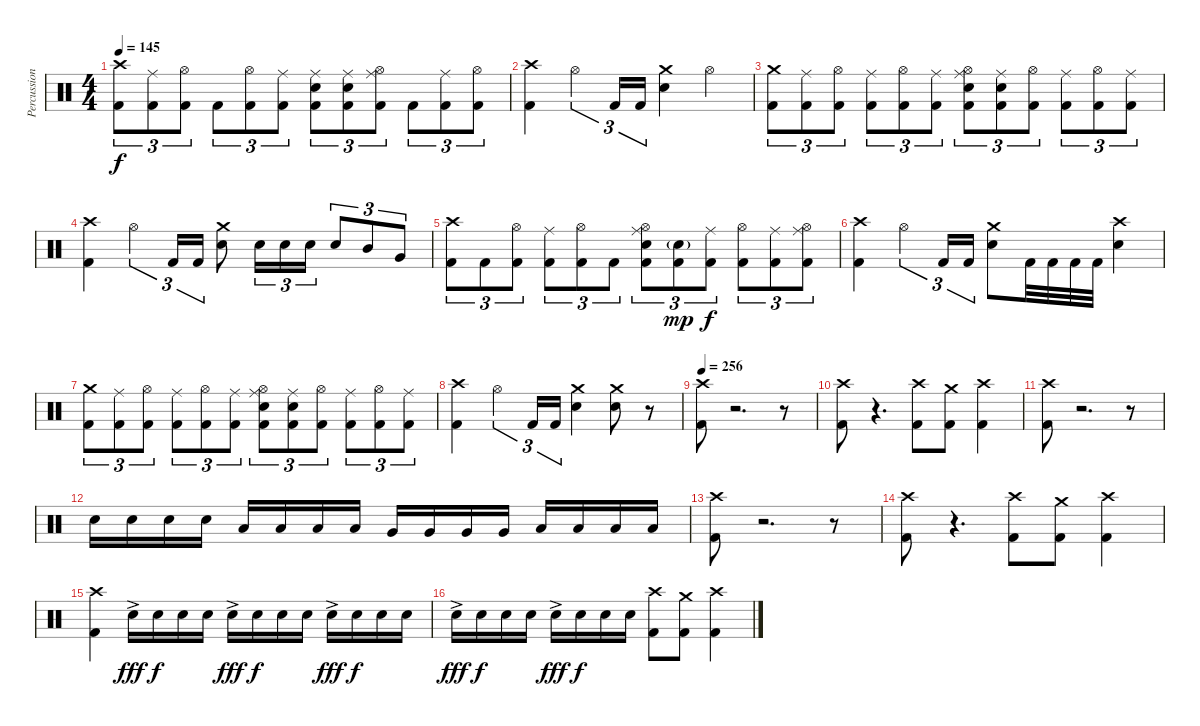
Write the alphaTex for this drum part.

\track ("Percussion" "Percussion") {instrument percussion}
\staff {score}
\articulation defaults
\ts (4 4)
\tempo 145
\clef neutral
\ks c
("Crash high (hit)" "Kick (hit) 2").8{tu (3 2) dy f} ("Ride (middle)" "Kick (hit) 2").8{tu (3 2)} ("Hi-Hat (open)" "Kick (hit) 2").8{tu (3 2)} "Kick (hit) 2".8{tu (3 2)} ("Hi-Hat (open)" "Kick (hit) 2").8{tu (3 2)} ("Ride (middle)" "Kick (hit) 2").8{tu (3 2)} ("Ride (middle)" "Snare (hit) 2" "Kick (hit) 2").8{tu (3 2)} ("Ride (middle)" "Snare (hit) 2" "Kick (hit) 2").8{tu (3 2)} ("Ride (middle)" "Hi-Hat (open)" "Kick (hit) 2").8{tu (3 2)} "Kick (hit) 2".8{tu (3 2)} ("Ride (middle)" "Kick (hit) 2").8{tu (3 2)} ("Hi-Hat (open)" "Kick (hit) 2").8{tu (3 2)} |
("Crash high (hit)" "Kick (hit) 2").4 "Hi-Hat (open)".4{tu (3 2)} "Kick (hit) 2".16{tu (3 2)} "Kick (hit) 2".16{tu (3 2)} ("Crash medium (hit)" "Snare (hit) 2").4 "Hi-Hat (open)".4 |
("Crash medium (hit)" "Kick (hit) 2").8{tu (3 2)} ("Ride (middle)" "Kick (hit) 2").8{tu (3 2)} ("Hi-Hat (open)" "Kick (hit) 2").8{tu (3 2)} ("Ride (middle)" "Kick (hit) 2").8{tu (3 2)} ("Hi-Hat (open)" "Kick (hit) 2").8{tu (3 2)} ("Ride (middle)" "Kick (hit) 2").8{tu (3 2)} ("Ride (middle)" "Snare (hit) 2" "Hi-Hat (open)" "Kick (hit) 2").8{tu (3 2)} ("Ride (middle)" "Snare (hit) 2" "Kick (hit) 2").8{tu (3 2)} ("Hi-Hat (open)" "Kick (hit) 2").8{tu (3 2)} ("Ride (middle)" "Kick (hit) 2").8{tu (3 2)} ("Hi-Hat (open)" "Kick (hit) 2").8{tu (3 2)} ("Ride (middle)" "Kick (hit) 2").8{tu (3 2)} |
("Crash high (hit)" "Kick (hit) 2").4 "Hi-Hat (open)".4{tu (3 2)} "Kick (hit) 2".16{tu (3 2)} "Kick (hit) 2".16{tu (3 2)} ("Crash medium (hit)" "Snare (hit) 2").8 "Snare (hit) 2".16{tu (3 2)} "Snare (hit) 2".16{tu (3 2)} "Snare (hit) 2".16{tu (3 2)} "Snare (hit) 2".8{tu (3 2)} "Mid Tom (hit)".8{tu (3 2)} "Very Low Tom (hit)".8{tu (3 2)} |
("Crash high (hit)" "Kick (hit) 2").8{tu (3 2)} "Kick (hit) 2".8{tu (3 2)} ("Hi-Hat (open)" "Kick (hit) 2").8{tu (3 2)} ("Ride (middle)" "Kick (hit) 2").8{tu (3 2)} ("Hi-Hat (open)" "Kick (hit) 2").8{tu (3 2)} "Kick (hit) 2".8{tu (3 2)} ("Ride (middle)" "Snare (hit) 2" "Hi-Hat (open)" "Kick (hit) 2").8{tu (3 2)} ("Snare (hit) 2"{g} "Kick (hit) 2").8{tu (3 2) dy mp} ("Ride (middle)" "Kick (hit) 2").8{tu (3 2) dy f} ("Hi-Hat (open)" "Kick (hit) 2").8{tu (3 2)} ("Ride (middle)" "Kick (hit) 2").8{tu (3 2)} ("Ride (middle)" "Hi-Hat (open)" "Kick (hit) 2").8{tu (3 2)} |
("Crash high (hit)" "Kick (hit) 2").4 "Hi-Hat (open)".4{tu (3 2)} "Kick (hit) 2".16{tu (3 2)} "Kick (hit) 2".16{tu (3 2)} ("Crash medium (hit)" "Snare (hit) 2").8 "Kick (hit) 2".32 "Kick (hit) 2".32 "Kick (hit) 2".32 "Kick (hit) 2".32 ("Crash high (hit)" "Snare (hit) 2").4 |
("Crash medium (hit)" "Kick (hit) 2").8{tu (3 2)} ("Ride (middle)" "Kick (hit) 2").8{tu (3 2)} ("Hi-Hat (open)" "Kick (hit) 2").8{tu (3 2)} ("Ride (middle)" "Kick (hit) 2").8{tu (3 2)} ("Hi-Hat (open)" "Kick (hit) 2").8{tu (3 2)} ("Ride (middle)" "Kick (hit) 2").8{tu (3 2)} ("Ride (middle)" "Snare (hit) 2" "Hi-Hat (open)" "Kick (hit) 2").8{tu (3 2)} ("Ride (middle)" "Snare (hit) 2" "Kick (hit) 2").8{tu (3 2)} ("Hi-Hat (open)" "Kick (hit) 2").8{tu (3 2)} ("Ride (middle)" "Kick (hit) 2").8{tu (3 2)} ("Hi-Hat (open)" "Kick (hit) 2").8{tu (3 2)} ("Ride (middle)" "Kick (hit) 2").8{tu (3 2)} |
("Crash high (hit)" "Kick (hit) 2").4 "Hi-Hat (open)".4{tu (3 2)} "Kick (hit) 2".16{tu (3 2)} "Kick (hit) 2".16{tu (3 2)} ("Crash medium (hit)" "Snare (hit) 2").4 ("Crash medium (hit)" "Snare (hit) 2").8 r.8{volume 0} |
\tempo 256
("Crash high (hit)" "Kick (hit) 2").8{volume 16} r.2{d volume 0} r.8 |
("Crash high (hit)" "Kick (hit) 2").8{volume 16} r.4{d volume 0} ("Crash high (hit)" "Kick (hit) 2").8{volume 16} ("Crash medium (hit)" "Kick (hit) 2").8 ("Crash high (hit)" "Kick (hit) 2").4 |
("Crash high (hit)" "Kick (hit) 2").8{volume 16} r.2{d volume 0} r.8 |
"Snare (hit) 2".16{volume 16 balance 0} "Snare (hit) 2".16 "Snare (hit) 2".16 "Snare (hit) 2".16 "Low Tom (hit)".16 "Low Tom (hit)".16 "Low Tom (hit)".16 "Low Tom (hit)".16 "Very Low Tom (hit)".16{balance 16} "Very Low Tom (hit)".16 "Very Low Tom (hit)".16 "Very Low Tom (hit)".16 "Low Floor Tom (hit)".16 "Low Floor Tom (hit)".16 "Low Floor Tom (hit)".16 "Low Floor Tom (hit)".16 |
("Crash high (hit)" "Kick (hit) 2").8{volume 16 balance 8} r.2{d volume 0} r.8 |
("Crash high (hit)" "Kick (hit) 2").8{volume 16} r.4{d volume 0} ("Crash high (hit)" "Kick (hit) 2").8{volume 16} ("Crash medium (hit)" "Kick (hit) 2").8 ("Crash high (hit)" "Kick (hit) 2").4 |
("Crash high (hit)" "Kick (hit) 2").4{balance 8} "Snare (hit) 2"{ac}.16{dy fff} "Snare (hit) 2".16{dy f} "Snare (hit) 2".16 "Snare (hit) 2".16 "Snare (hit) 2"{ac}.16{dy fff} "Snare (hit) 2".16{dy f} "Snare (hit) 2".16 "Snare (hit) 2".16 "Snare (hit) 2"{ac}.16{dy fff} "Snare (hit) 2".16{dy f} "Snare (hit) 2".16 "Snare (hit) 2".16 |
"Snare (hit) 2"{ac}.16{dy fff} "Snare (hit) 2".16{dy f} "Snare (hit) 2".16 "Snare (hit) 2".16 "Snare (hit) 2"{ac}.16{dy fff} "Snare (hit) 2".16{dy f} "Snare (hit) 2".16 "Snare (hit) 2".16 ("Crash high (hit)" "Kick (hit) 2").8 ("Crash medium (hit)" "Kick (hit) 2").8 ("Crash high (hit)" "Kick (hit) 2").4
